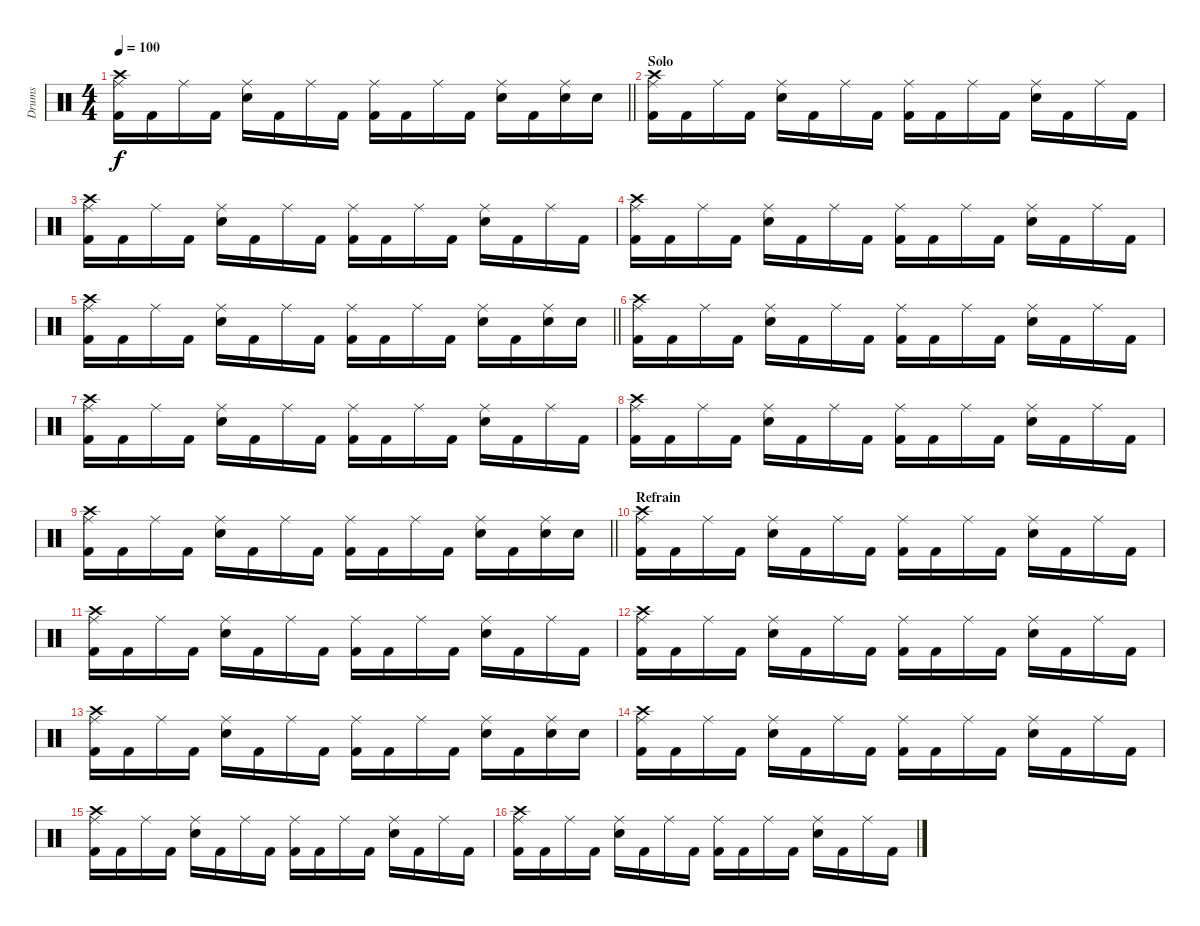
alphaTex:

\track ("Drums" "Drums") {instrument percussion}
\staff {score}
\articulation defaults
\ts (4 4)
\tempo 100
\clef neutral
\barLineRight lightlight
\ks c
("Crash high (hit)" "Kick (hit) 2" "Ride (middle)").16{dy f} "Kick (hit) 2".16 "Ride (middle)".16 "Kick (hit) 2".16 ("Snare (hit) 2" "Ride (middle)").16 "Kick (hit) 2".16 "Ride (middle)".16 "Kick (hit) 2".16 ("Kick (hit) 2" "Ride (middle)").16 "Kick (hit) 2".16 "Ride (middle)".16 "Kick (hit) 2".16 ("Snare (hit) 2" "Ride (middle)").16 "Kick (hit) 2".16 ("Snare (hit) 2" "Ride (middle)").16 "Snare (hit) 2".16 |
\section ("" "Solo")
("Crash high (hit)" "Kick (hit) 2" "Ride (middle)").16 "Kick (hit) 2".16 "Ride (middle)".16 "Kick (hit) 2".16 ("Snare (hit) 2" "Ride (middle)").16 "Kick (hit) 2".16 "Ride (middle)".16 "Kick (hit) 2".16 ("Kick (hit) 2" "Ride (middle)").16 "Kick (hit) 2".16 "Ride (middle)".16 "Kick (hit) 2".16 ("Snare (hit) 2" "Ride (middle)").16 "Kick (hit) 2".16 "Ride (middle)".16 "Kick (hit) 2".16 |
("Crash high (hit)" "Kick (hit) 2" "Ride (middle)").16 "Kick (hit) 2".16 "Ride (middle)".16 "Kick (hit) 2".16 ("Snare (hit) 2" "Ride (middle)").16 "Kick (hit) 2".16 "Ride (middle)".16 "Kick (hit) 2".16 ("Kick (hit) 2" "Ride (middle)").16 "Kick (hit) 2".16 "Ride (middle)".16 "Kick (hit) 2".16 ("Snare (hit) 2" "Ride (middle)").16 "Kick (hit) 2".16 "Ride (middle)".16 "Kick (hit) 2".16 |
("Crash high (hit)" "Kick (hit) 2" "Ride (middle)").16 "Kick (hit) 2".16 "Ride (middle)".16 "Kick (hit) 2".16 ("Snare (hit) 2" "Ride (middle)").16 "Kick (hit) 2".16 "Ride (middle)".16 "Kick (hit) 2".16 ("Kick (hit) 2" "Ride (middle)").16 "Kick (hit) 2".16 "Ride (middle)".16 "Kick (hit) 2".16 ("Snare (hit) 2" "Ride (middle)").16 "Kick (hit) 2".16 "Ride (middle)".16 "Kick (hit) 2".16 |
\barLineRight lightlight
("Crash high (hit)" "Kick (hit) 2" "Ride (middle)").16 "Kick (hit) 2".16 "Ride (middle)".16 "Kick (hit) 2".16 ("Snare (hit) 2" "Ride (middle)").16 "Kick (hit) 2".16 "Ride (middle)".16 "Kick (hit) 2".16 ("Kick (hit) 2" "Ride (middle)").16 "Kick (hit) 2".16 "Ride (middle)".16 "Kick (hit) 2".16 ("Snare (hit) 2" "Ride (middle)").16 "Kick (hit) 2".16 ("Snare (hit) 2" "Ride (middle)").16 "Snare (hit) 2".16 |
("Crash high (hit)" "Kick (hit) 2" "Ride (middle)").16 "Kick (hit) 2".16 "Ride (middle)".16 "Kick (hit) 2".16 ("Snare (hit) 2" "Ride (middle)").16 "Kick (hit) 2".16 "Ride (middle)".16 "Kick (hit) 2".16 ("Kick (hit) 2" "Ride (middle)").16 "Kick (hit) 2".16 "Ride (middle)".16 "Kick (hit) 2".16 ("Snare (hit) 2" "Ride (middle)").16 "Kick (hit) 2".16 "Ride (middle)".16 "Kick (hit) 2".16 |
("Crash high (hit)" "Kick (hit) 2" "Ride (middle)").16 "Kick (hit) 2".16 "Ride (middle)".16 "Kick (hit) 2".16 ("Snare (hit) 2" "Ride (middle)").16 "Kick (hit) 2".16 "Ride (middle)".16 "Kick (hit) 2".16 ("Kick (hit) 2" "Ride (middle)").16 "Kick (hit) 2".16 "Ride (middle)".16 "Kick (hit) 2".16 ("Snare (hit) 2" "Ride (middle)").16 "Kick (hit) 2".16 "Ride (middle)".16 "Kick (hit) 2".16 |
("Crash high (hit)" "Kick (hit) 2" "Ride (middle)").16 "Kick (hit) 2".16 "Ride (middle)".16 "Kick (hit) 2".16 ("Snare (hit) 2" "Ride (middle)").16 "Kick (hit) 2".16 "Ride (middle)".16 "Kick (hit) 2".16 ("Kick (hit) 2" "Ride (middle)").16 "Kick (hit) 2".16 "Ride (middle)".16 "Kick (hit) 2".16 ("Snare (hit) 2" "Ride (middle)").16 "Kick (hit) 2".16 "Ride (middle)".16 "Kick (hit) 2".16 |
\barLineRight lightlight
("Crash high (hit)" "Kick (hit) 2" "Ride (middle)").16 "Kick (hit) 2".16 "Ride (middle)".16 "Kick (hit) 2".16 ("Snare (hit) 2" "Ride (middle)").16 "Kick (hit) 2".16 "Ride (middle)".16 "Kick (hit) 2".16 ("Kick (hit) 2" "Ride (middle)").16 "Kick (hit) 2".16 "Ride (middle)".16 "Kick (hit) 2".16 ("Snare (hit) 2" "Ride (middle)").16 "Kick (hit) 2".16 ("Snare (hit) 2" "Ride (middle)").16 "Snare (hit) 2".16 |
\section ("" "Refrain")
("Crash high (hit)" "Kick (hit) 2" "Ride (middle)").16 "Kick (hit) 2".16 "Ride (middle)".16 "Kick (hit) 2".16 ("Snare (hit) 2" "Ride (middle)").16 "Kick (hit) 2".16 "Ride (middle)".16 "Kick (hit) 2".16 ("Kick (hit) 2" "Ride (middle)").16 "Kick (hit) 2".16 "Ride (middle)".16 "Kick (hit) 2".16 ("Snare (hit) 2" "Ride (middle)").16 "Kick (hit) 2".16 "Ride (middle)".16 "Kick (hit) 2".16 |
("Crash high (hit)" "Kick (hit) 2" "Ride (middle)").16 "Kick (hit) 2".16 "Ride (middle)".16 "Kick (hit) 2".16 ("Snare (hit) 2" "Ride (middle)").16 "Kick (hit) 2".16 "Ride (middle)".16 "Kick (hit) 2".16 ("Kick (hit) 2" "Ride (middle)").16 "Kick (hit) 2".16 "Ride (middle)".16 "Kick (hit) 2".16 ("Snare (hit) 2" "Ride (middle)").16 "Kick (hit) 2".16 "Ride (middle)".16 "Kick (hit) 2".16 |
("Crash high (hit)" "Kick (hit) 2" "Ride (middle)").16 "Kick (hit) 2".16 "Ride (middle)".16 "Kick (hit) 2".16 ("Snare (hit) 2" "Ride (middle)").16 "Kick (hit) 2".16 "Ride (middle)".16 "Kick (hit) 2".16 ("Kick (hit) 2" "Ride (middle)").16 "Kick (hit) 2".16 "Ride (middle)".16 "Kick (hit) 2".16 ("Snare (hit) 2" "Ride (middle)").16 "Kick (hit) 2".16 "Ride (middle)".16 "Kick (hit) 2".16 |
("Crash high (hit)" "Kick (hit) 2" "Ride (middle)").16 "Kick (hit) 2".16 "Ride (middle)".16 "Kick (hit) 2".16 ("Snare (hit) 2" "Ride (middle)").16 "Kick (hit) 2".16 "Ride (middle)".16 "Kick (hit) 2".16 ("Kick (hit) 2" "Ride (middle)").16 "Kick (hit) 2".16 "Ride (middle)".16 "Kick (hit) 2".16 ("Snare (hit) 2" "Ride (middle)").16 "Kick (hit) 2".16 ("Snare (hit) 2" "Ride (middle)").16 "Snare (hit) 2".16 |
("Crash high (hit)" "Kick (hit) 2" "Ride (middle)").16 "Kick (hit) 2".16 "Ride (middle)".16 "Kick (hit) 2".16 ("Snare (hit) 2" "Ride (middle)").16 "Kick (hit) 2".16 "Ride (middle)".16 "Kick (hit) 2".16 ("Kick (hit) 2" "Ride (middle)").16 "Kick (hit) 2".16 "Ride (middle)".16 "Kick (hit) 2".16 ("Snare (hit) 2" "Ride (middle)").16 "Kick (hit) 2".16 "Ride (middle)".16 "Kick (hit) 2".16 |
("Crash high (hit)" "Kick (hit) 2" "Ride (middle)").16 "Kick (hit) 2".16 "Ride (middle)".16 "Kick (hit) 2".16 ("Snare (hit) 2" "Ride (middle)").16 "Kick (hit) 2".16 "Ride (middle)".16 "Kick (hit) 2".16 ("Kick (hit) 2" "Ride (middle)").16 "Kick (hit) 2".16 "Ride (middle)".16 "Kick (hit) 2".16 ("Snare (hit) 2" "Ride (middle)").16 "Kick (hit) 2".16 "Ride (middle)".16 "Kick (hit) 2".16 |
("Crash high (hit)" "Kick (hit) 2" "Ride (middle)").16 "Kick (hit) 2".16 "Ride (middle)".16 "Kick (hit) 2".16 ("Snare (hit) 2" "Ride (middle)").16 "Kick (hit) 2".16 "Ride (middle)".16 "Kick (hit) 2".16 ("Kick (hit) 2" "Ride (middle)").16 "Kick (hit) 2".16 "Ride (middle)".16 "Kick (hit) 2".16 ("Snare (hit) 2" "Ride (middle)").16 "Kick (hit) 2".16 "Ride (middle)".16 "Kick (hit) 2".16
